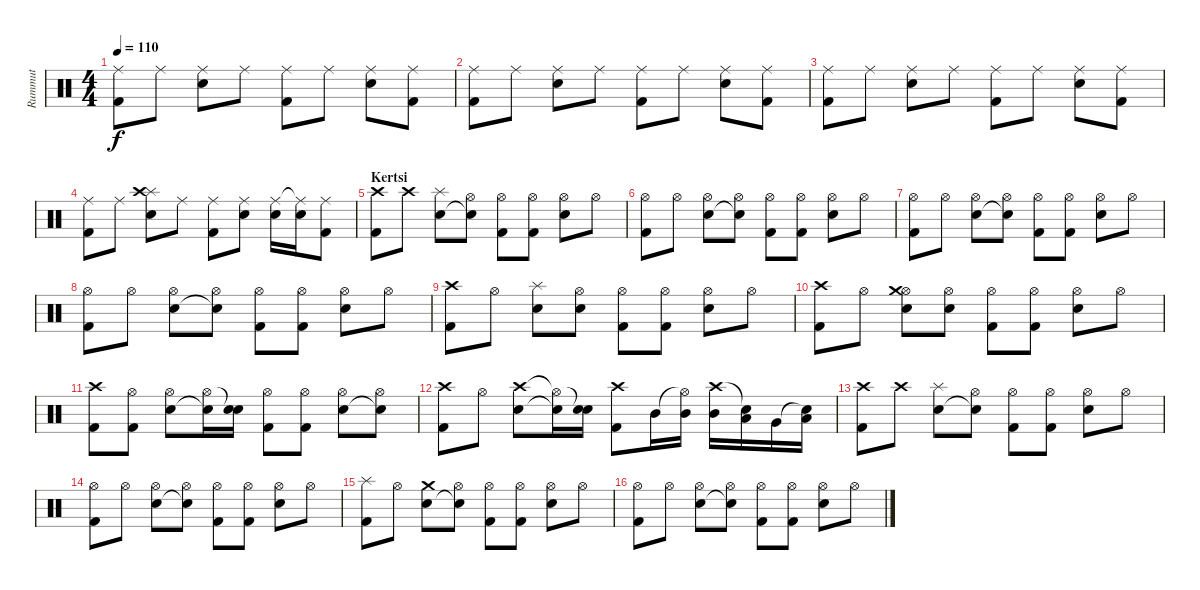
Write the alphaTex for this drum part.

\track ("Rummut" "Rummut") {instrument percussion}
\staff {score}
\articulation defaults
\ts (4 4)
\tempo 110
\clef neutral
\ks c
("Ride (middle)" "Kick (hit) 2").8{dy f} "Ride (middle)".8 ("Ride (middle)" "Snare (hit) 2").8 "Ride (middle)".8 ("Ride (middle)" "Kick (hit) 2").8 "Ride (middle)".8 ("Ride (middle)" "Snare (hit) 2").8 ("Ride (middle)" "Kick (hit) 2").8 |
("Ride (middle)" "Kick (hit) 2").8 "Ride (middle)".8 ("Ride (middle)" "Snare (hit) 2").8 "Ride (middle)".8 ("Ride (middle)" "Kick (hit) 2").8 "Ride (middle)".8 ("Ride (middle)" "Snare (hit) 2").8 ("Ride (middle)" "Kick (hit) 2").8 |
("Ride (middle)" "Kick (hit) 2").8 "Ride (middle)".8 ("Ride (middle)" "Snare (hit) 2").8 "Ride (middle)".8 ("Ride (middle)" "Kick (hit) 2").8 "Ride (middle)".8 ("Ride (middle)" "Snare (hit) 2").8 ("Ride (middle)" "Kick (hit) 2").8 |
("Ride (middle)" "Kick (hit) 2").8 "Ride (middle)".8 ("Splash (hit)" "Crash high (hit)" "Snare (hit) 2").8 "Ride (middle)".8 ("Ride (middle)" "Kick (hit) 2").8 ("Ride (middle)" "Snare (hit) 2").8 ("Ride (middle)" "Snare (hit) 2").16 ("Ride (middle)"{t} "Snare (hit) 2").16 ("Ride (middle)" "Kick (hit) 2").8 |
\section ("" "Kertsi")
("Crash high (hit)" "Kick (hit) 2").8 "Crash high (hit)".8 ("Splash (hit)" "Snare (hit) 2").8 ("Hi-Hat (open)" "Snare (hit)"{t}).8 ("Hi-Hat (open)" "Kick (hit) 2").8 ("Hi-Hat (open)" "Kick (hit) 2").8 ("Hi-Hat (open)" "Snare (hit) 2").8 "Hi-Hat (open)".8 |
("Hi-Hat (open)" "Kick (hit) 2").8 "Hi-Hat (open)".8 ("Hi-Hat (open)" "Snare (hit) 2").8 ("Hi-Hat (open)" "Snare (hit)"{t}).8 ("Hi-Hat (open)" "Kick (hit) 2").8 ("Hi-Hat (open)" "Kick (hit) 2").8 ("Hi-Hat (open)" "Snare (hit) 2").8 "Hi-Hat (open)".8 |
("Hi-Hat (open)" "Kick (hit) 2").8 "Hi-Hat (open)".8 ("Hi-Hat (open)" "Snare (hit) 2").8 ("Hi-Hat (open)" "Snare (hit)"{t}).8 ("Hi-Hat (open)" "Kick (hit) 2").8 ("Hi-Hat (open)" "Kick (hit) 2").8 ("Hi-Hat (open)" "Snare (hit) 2").8 "Hi-Hat (open)".8 |
("Hi-Hat (open)" "Kick (hit) 2").8 "Hi-Hat (open)".8 ("Hi-Hat (open)" "Snare (hit) 2").8 ("Hi-Hat (open)" "Snare (hit)"{t}).8 ("Hi-Hat (open)" "Kick (hit) 2").8 ("Hi-Hat (open)" "Kick (hit) 2").8 ("Hi-Hat (open)" "Snare (hit) 2").8 "Hi-Hat (open)".8 |
("Crash high (hit)" "Kick (hit) 2").8 "Hi-Hat (open)".8 ("Splash (hit)" "Snare (hit) 2").8 ("Hi-Hat (open)" "Snare (hit) 2").8 ("Hi-Hat (open)" "Kick (hit) 2").8 ("Hi-Hat (open)" "Kick (hit) 2").8 ("Hi-Hat (open)" "Snare (hit) 2").8 "Hi-Hat (open)".8 |
("Crash high (hit)" "Kick (hit) 2").8 "Hi-Hat (open)".8 ("Hi-Hat (open)" "Crash medium (hit)" "Snare (hit) 2").8 ("Hi-Hat (open)" "Snare (hit) 2").8 ("Hi-Hat (open)" "Kick (hit) 2").8 ("Hi-Hat (open)" "Kick (hit) 2").8 ("Hi-Hat (open)" "Snare (hit) 2").8 "Hi-Hat (open)".8 |
("Crash high (hit)" "Kick (hit) 2").8 ("Hi-Hat (open)" "Kick (hit) 2").8 ("Hi-Hat (open)" "Snare (hit) 2").8 ("Hi-Hat (open)" "Snare (hit) 2"{t}).16 ("Snare (hit)"{t} "Snare (hit) 2").16 ("Hi-Hat (open)" "Kick (hit) 2").8 ("Hi-Hat (open)" "Kick (hit) 2").8 ("Hi-Hat (open)" "Snare (hit) 2").8 ("Hi-Hat (open)" "Snare (hit)"{t}).8 |
("Crash high (hit)" "Kick (hit) 2").8 "Hi-Hat (open)".8 ("Crash high (hit)" "Snare (hit) 2").8 ("Hi-Hat (open)"{t} "Snare (hit) 2"{t}).16 ("Snare (hit)"{t} "Snare (hit) 2").16 ("Crash high (hit)" "Kick (hit) 2").8 "Mid Tom (hit)".16 ("Hi-Hat (open)"{t} "Mid Tom (hit)").16 ("Crash high (hit)" "Mid Tom (hit)").16 ("Snare (hit)"{t} "Low Tom (hit)").16 "Very Low Tom (hit)".16 ("Snare (hit)"{t} "Low Floor Tom (hit)").16 |
("Crash high (hit)" "Kick (hit) 2").8 "Crash high (hit)".8 ("Splash (hit)" "Snare (hit) 2").8 ("Hi-Hat (open)" "Snare (hit)"{t}).8 ("Hi-Hat (open)" "Kick (hit) 2").8 ("Hi-Hat (open)" "Kick (hit) 2").8 ("Hi-Hat (open)" "Snare (hit) 2").8 "Hi-Hat (open)".8 |
("Hi-Hat (open)" "Kick (hit) 2").8 "Hi-Hat (open)".8 ("Hi-Hat (open)" "Snare (hit) 2").8 ("Hi-Hat (open)" "Snare (hit)"{t}).8 ("Hi-Hat (open)" "Kick (hit) 2").8 ("Hi-Hat (open)" "Kick (hit) 2").8 ("Hi-Hat (open)" "Snare (hit) 2").8 "Hi-Hat (open)".8 |
("Splash (hit)" "Kick (hit) 2").8 "Hi-Hat (open)".8 ("Crash medium (hit)" "Snare (hit) 2").8 ("Hi-Hat (open)" "Snare (hit)"{t}).8 ("Hi-Hat (open)" "Kick (hit) 2").8 ("Hi-Hat (open)" "Kick (hit) 2").8 ("Hi-Hat (open)" "Snare (hit) 2").8 "Hi-Hat (open)".8 |
("Hi-Hat (open)" "Kick (hit) 2").8 "Hi-Hat (open)".8 ("Hi-Hat (open)" "Snare (hit) 2").8 ("Hi-Hat (open)" "Snare (hit)"{t}).8 ("Hi-Hat (open)" "Kick (hit) 2").8 ("Hi-Hat (open)" "Kick (hit) 2").8 ("Hi-Hat (open)" "Snare (hit) 2").8 "Hi-Hat (open)".8
